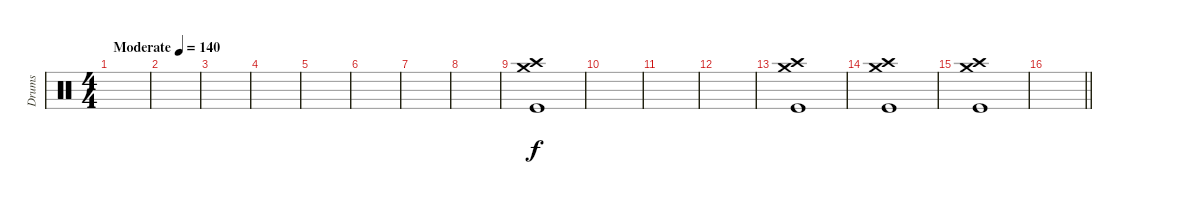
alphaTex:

\track ("Drums" "Drums") {instrument percussion}
\staff {score}
\articulation defaults
\ts (4 4)
\tempo (140 "Moderate")
\clef neutral
\ks c
|
|
|
|
|
|
|
|
("Crash medium (hit)" "Crash high (hit)" "Kick (hit)").1 |
|
|
|
("Crash medium (hit)" "Crash high (hit)" "Kick (hit)").1 |
("Crash medium (hit)" "Crash high (hit)" "Kick (hit)").1 |
("Crash medium (hit)" "Crash high (hit)" "Kick (hit)").1 |
\barLineRight lightlight
